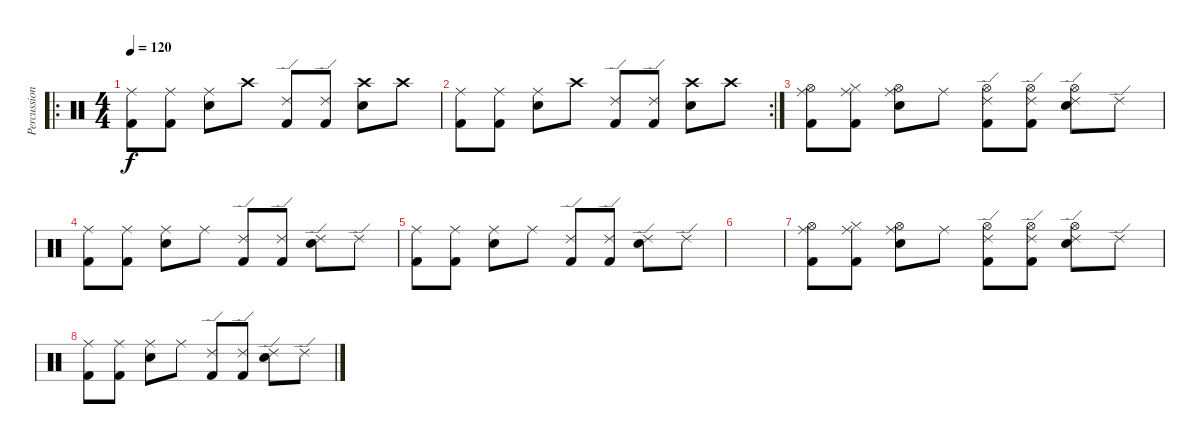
\track ("Percussion" "Percussion") {instrument percussion}
\staff {score}
\articulation defaults
\ro
\ts (4 4)
\tempo 120
\clef neutral
\ks c
("Ride (middle)" "Kick (hit) 2").8{dy f} ("Ride (middle)" "Kick (hit) 2").8 ("Ride (middle)" "Snare (hit) 2").8 "Crash high (hit)".8 ("Ride (edge) 2" "Kick (hit) 2").8 ("Ride (edge) 2" "Kick (hit) 2").8 ("Crash high (hit)" "Snare (hit) 2").8 "Crash high (hit)".8 |
\rc 2
("Ride (middle)" "Kick (hit) 2").8 ("Ride (middle)" "Kick (hit) 2").8 ("Ride (middle)" "Snare (hit) 2").8 "Crash high (hit)".8 ("Ride (edge) 2" "Kick (hit) 2").8 ("Ride (edge) 2" "Kick (hit) 2").8 ("Crash high (hit)" "Snare (hit) 2").8 "Crash high (hit)".8 |
("Ride (middle)" "Hi-Hat (open)" "Kick (hit) 2").8 ("Ride (middle)" "Hi-Hat (closed)" "Kick (hit) 2").8 ("Ride (middle)" "Hi-Hat (open)" "Snare (hit) 2").8 "Ride (middle)".8 ("Ride (edge) 2" "Hi-Hat (open)" "Kick (hit) 2").8 ("Ride (edge) 2" "Hi-Hat (open)" "Kick (hit) 2").8 ("Ride (edge) 2" "Hi-Hat (open)" "Snare (hit) 2").8 "Ride (edge) 2".8 |
("Ride (middle)" "Kick (hit) 2").8 ("Ride (middle)" "Kick (hit) 2").8 ("Ride (middle)" "Snare (hit) 2").8 "Ride (middle)".8 ("Ride (edge) 2" "Kick (hit) 2").8 ("Ride (edge) 2" "Kick (hit) 2").8 ("Ride (edge) 2" "Snare (hit) 2").8 "Ride (edge) 2".8 |
("Ride (middle)" "Kick (hit) 2").8 ("Ride (middle)" "Kick (hit) 2").8 ("Ride (middle)" "Snare (hit) 2").8 "Ride (middle)".8 ("Ride (edge) 2" "Kick (hit) 2").8 ("Ride (edge) 2" "Kick (hit) 2").8 ("Ride (edge) 2" "Snare (hit) 2").8 "Ride (edge) 2".8 |
|
("Ride (middle)" "Hi-Hat (open)" "Kick (hit) 2").8 ("Ride (middle)" "Hi-Hat (closed)" "Kick (hit) 2").8 ("Ride (middle)" "Hi-Hat (open)" "Snare (hit) 2").8 "Ride (middle)".8 ("Ride (edge) 2" "Hi-Hat (open)" "Kick (hit) 2").8 ("Ride (edge) 2" "Hi-Hat (open)" "Kick (hit) 2").8 ("Ride (edge) 2" "Hi-Hat (open)" "Snare (hit) 2").8 "Ride (edge) 2".8 |
("Ride (middle)" "Kick (hit) 2").8 ("Ride (middle)" "Kick (hit) 2").8 ("Ride (middle)" "Snare (hit) 2").8 "Ride (middle)".8 ("Ride (edge) 2" "Kick (hit) 2").8 ("Ride (edge) 2" "Kick (hit) 2").8 ("Ride (edge) 2" "Snare (hit) 2").8 "Ride (edge) 2".8
